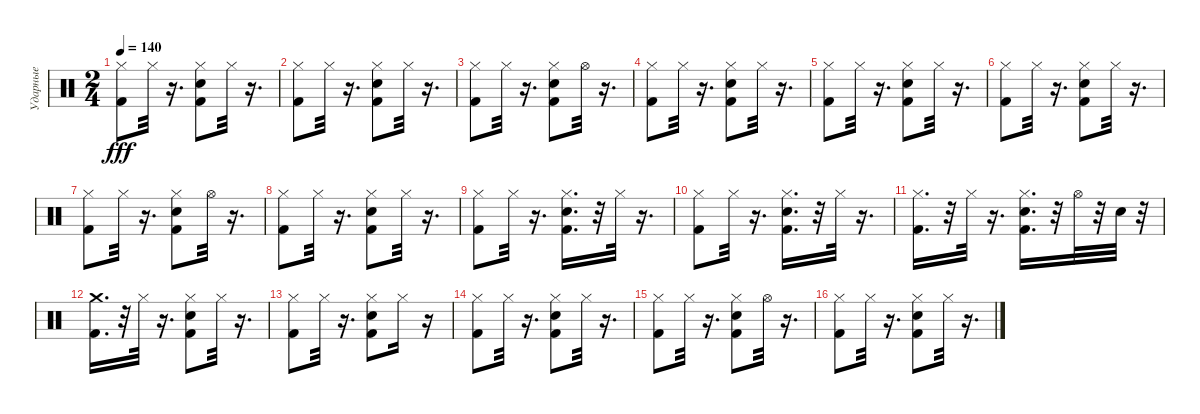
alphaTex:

\track ("Ударные" "Ударные") {instrument percussion}
\staff {score}
\articulation defaults
\ts (2 4)
\tempo 140
\clef neutral
\ks c
("Kick (hit) 2" "Hi-Hat (closed)").8{dy fff} "Hi-Hat (closed)".32 r.16{d} ("Snare (hit) 2" "Kick (hit) 2" "Hi-Hat (closed)").8 "Hi-Hat (closed)".32 r.16{d} |
("Kick (hit) 2" "Hi-Hat (closed)").8 "Hi-Hat (closed)".32 r.16{d} ("Kick (hit) 2" "Hi-Hat (closed)" "Snare (hit) 2").8 "Hi-Hat (closed)".32 r.16{d} |
("Kick (hit) 2" "Hi-Hat (closed)").8 "Hi-Hat (closed)".32 r.16{d} ("Snare (hit) 2" "Kick (hit) 2" "Hi-Hat (closed)").8 "Hi-Hat (open)".32 r.16{d} |
("Kick (hit) 2" "Hi-Hat (closed)").8 "Hi-Hat (closed)".32 r.16{d} ("Snare (hit) 2" "Kick (hit) 2" "Hi-Hat (closed)").8 "Hi-Hat (closed)".32 r.16{d} |
("Kick (hit) 2" "Hi-Hat (closed)").8 "Hi-Hat (closed)".32 r.16{d} ("Snare (hit) 2" "Kick (hit) 2" "Hi-Hat (closed)").8 "Hi-Hat (closed)".32 r.16{d} |
("Kick (hit) 2" "Hi-Hat (closed)").8 "Hi-Hat (closed)".32 r.16{d} ("Snare (hit) 2" "Kick (hit) 2" "Hi-Hat (closed)").8 "Hi-Hat (closed)".32 r.16{d} |
("Kick (hit) 2" "Hi-Hat (closed)").8 "Hi-Hat (closed)".32 r.16{d} ("Snare (hit) 2" "Kick (hit) 2" "Hi-Hat (closed)").8 "Hi-Hat (open)".32 r.16{d} |
("Kick (hit) 2" "Hi-Hat (closed)").8 "Hi-Hat (closed)".32 r.16{d} ("Snare (hit) 2" "Kick (hit) 2" "Hi-Hat (closed)").8 "Hi-Hat (closed)".32 r.16{d} |
("Kick (hit) 2" "Hi-Hat (closed)").8 "Hi-Hat (closed)".32 r.16{d} ("Snare (hit) 2" "Kick (hit) 2" "Hi-Hat (closed)").16{d} r.32 "Hi-Hat (closed)".32 r.16{d} |
("Kick (hit) 2" "Hi-Hat (closed)").8 "Hi-Hat (closed)".32 r.16{d} ("Snare (hit) 2" "Kick (hit) 2" "Hi-Hat (closed)").16{d} r.32 "Hi-Hat (closed)".32 r.16{d} |
("Kick (hit) 2" "Hi-Hat (closed)").16{d} r.32 "Hi-Hat (closed)".32 r.16{d} ("Snare (hit) 2" "Kick (hit) 2" "Hi-Hat (closed)").16{d} r.32 "Hi-Hat (open)".32 r.32 "Snare (hit) 2".32 r.32 |
("Kick (hit) 2" "Crash medium (hit)").16{d} r.32 "Hi-Hat (closed)".32 r.16{d} ("Snare (hit) 2" "Hi-Hat (closed)" "Kick (hit) 2").8 "Hi-Hat (closed)".32 r.16{d} |
("Kick (hit) 2" "Hi-Hat (closed)").8 "Hi-Hat (closed)".32 r.16{d} ("Snare (hit) 2" "Kick (hit) 2" "Hi-Hat (closed)").8 "Hi-Hat (closed)".16 r.16 |
("Kick (hit) 2" "Hi-Hat (closed)").8 "Hi-Hat (closed)".32 r.16{d} ("Snare (hit) 2" "Kick (hit) 2" "Hi-Hat (closed)").8 "Hi-Hat (closed)".32 r.16{d} |
("Kick (hit) 2" "Hi-Hat (closed)").8 "Hi-Hat (closed)".32 r.16{d} ("Hi-Hat (closed)" "Kick (hit) 2" "Snare (hit) 2").8 "Hi-Hat (open)".32 r.16{d} |
("Kick (hit) 2" "Hi-Hat (closed)").8 "Hi-Hat (closed)".32 r.16{d} ("Snare (hit) 2" "Kick (hit) 2" "Hi-Hat (closed)").8 "Hi-Hat (closed)".32 r.16{d}
